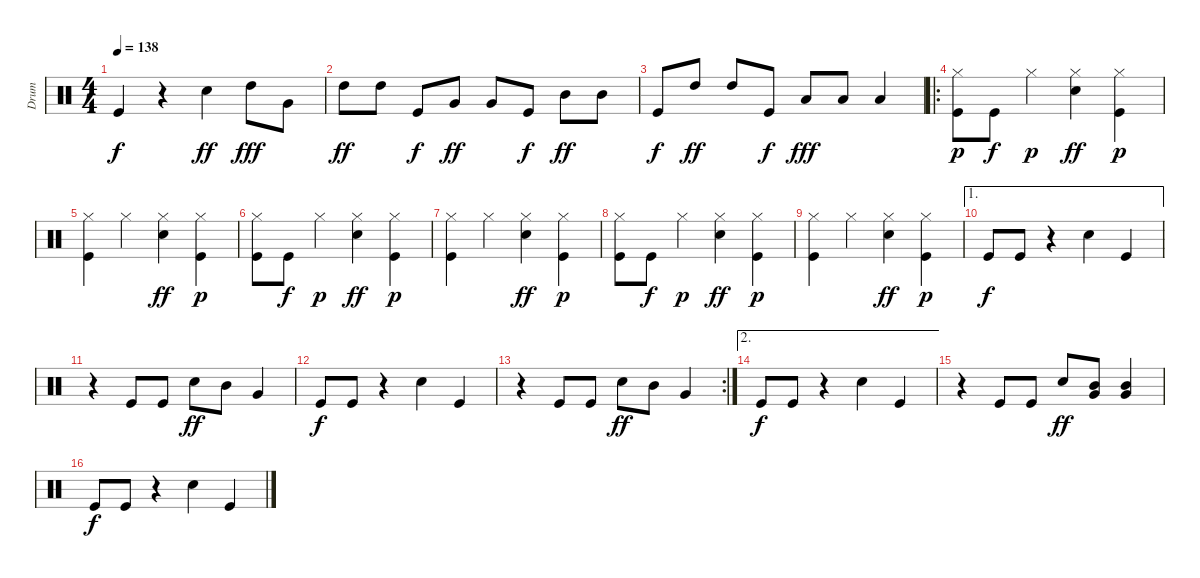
\track ("Drum" "Drum") {instrument percussion}
\staff {score}
\articulation defaults
\ts (4 4)
\tempo 138
\clef neutral
\ks c "Kick (hit)".4{dy f}
r.4 "Snare (hit) 2".4{dy ff} "High Tom (hit)".8{dy fff} "Very Low Tom (hit)".8 |
"High Tom (hit)".8{dy ff} "High Tom (hit)".8 "Kick (hit)".8{dy f} "Very Low Tom (hit)".8{dy ff} "Very Low Tom (hit)".8 "Kick (hit)".8{dy f} "Mid Tom (hit)".8{dy ff} "Mid Tom (hit)".8 |
"Kick (hit)".8{dy f} "High Tom (hit)".8{dy ff} "High Tom (hit)".8 "Kick (hit)".8{dy f} "Low Tom (hit)".8{dy fff} "Low Tom (hit)".8 "Low Tom (hit)".4 |
\ro
("Kick (hit)" "Hi-Hat (closed)").8{dy p} "Kick (hit)".8{dy f} "Hi-Hat (closed)".4{dy p} ("Snare (hit) 2" "Hi-Hat (closed)").4{dy ff} ("Kick (hit)" "Hi-Hat (closed)").4{dy p} |
("Kick (hit)" "Hi-Hat (closed)").4 "Hi-Hat (closed)".4 ("Snare (hit) 2" "Hi-Hat (closed)").4{dy ff} ("Kick (hit)" "Hi-Hat (closed)").4{dy p} |
("Kick (hit)" "Hi-Hat (closed)").8 "Kick (hit)".8{dy f} "Hi-Hat (closed)".4{dy p} ("Snare (hit) 2" "Hi-Hat (closed)").4{dy ff} ("Kick (hit)" "Hi-Hat (closed)").4{dy p} |
("Kick (hit)" "Hi-Hat (closed)").4 "Hi-Hat (closed)".4 ("Snare (hit) 2" "Hi-Hat (closed)").4{dy ff} ("Kick (hit)" "Hi-Hat (closed)").4{dy p} |
("Kick (hit)" "Hi-Hat (closed)").8 "Kick (hit)".8{dy f} "Hi-Hat (closed)".4{dy p} ("Snare (hit) 2" "Hi-Hat (closed)").4{dy ff} ("Kick (hit)" "Hi-Hat (closed)").4{dy p} |
("Kick (hit)" "Hi-Hat (closed)").4 "Hi-Hat (closed)".4 ("Snare (hit) 2" "Hi-Hat (closed)").4{dy ff} ("Kick (hit)" "Hi-Hat (closed)").4{dy p} |
\ae 1 "Kick (hit)".8{dy f} "Kick (hit)".8
r.4 "Snare (hit) 2".4 "Kick (hit)".4 |
r.4 "Kick (hit)".8 "Kick (hit)".8 "Snare (hit) 2".8{dy ff} "Mid Tom (hit)".8 "Very Low Tom (hit)".4 |
"Kick (hit)".8{dy f} "Kick (hit)".8 r.4 "Snare (hit) 2".4 "Kick (hit)".4 |
\rc 2
r.4 "Kick (hit)".8 "Kick (hit)".8 "Snare (hit) 2".8{dy ff} "Mid Tom (hit)".8 "Very Low Tom (hit)".4 |
\ae 2 "Kick (hit)".8{dy f} "Kick (hit)".8
r.4 "Snare (hit) 2".4 "Kick (hit)".4 |
r.4 "Kick (hit)".8 "Kick (hit)".8 "Snare (hit) 2".8{dy ff} ("Mid Tom (hit)" "Very Low Tom (hit)").8 ("Mid Tom (hit)" "Very Low Tom (hit)").4 |
"Kick (hit)".8{dy f} "Kick (hit)".8 r.4 "Snare (hit) 2".4 "Kick (hit)".4
